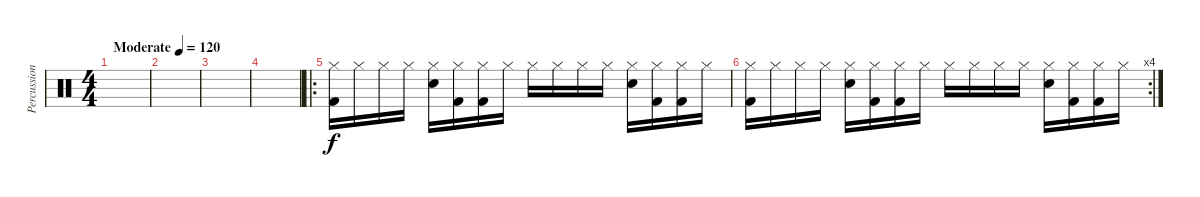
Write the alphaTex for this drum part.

\track ("Percussion" "Percussion") {instrument percussion}
\staff {score}
\articulation defaults
\ts (4 4)
\tempo (120 "Moderate")
\clef neutral
\ks c
|
|
|
|
\ro
("Hi-Hat (closed)" "Kick (hit) 2").16 "Hi-Hat (closed)".16 "Hi-Hat (closed)".16 "Hi-Hat (closed)".16 ("Hi-Hat (closed)" "Snare (hit) 2").16 ("Hi-Hat (closed)" "Kick (hit) 2").16 ("Hi-Hat (closed)" "Kick (hit) 2").16 "Hi-Hat (closed)".16 "Hi-Hat (closed)".16 "Hi-Hat (closed)".16 "Hi-Hat (closed)".16 "Hi-Hat (closed)".16 ("Hi-Hat (closed)" "Snare (hit) 2").16 ("Hi-Hat (closed)" "Kick (hit) 2").16 ("Hi-Hat (closed)" "Kick (hit) 2").16 "Hi-Hat (closed)".16 |
\rc 4
("Hi-Hat (closed)" "Kick (hit) 2").16 "Hi-Hat (closed)".16 "Hi-Hat (closed)".16 "Hi-Hat (closed)".16 ("Hi-Hat (closed)" "Snare (hit) 2").16 ("Hi-Hat (closed)" "Kick (hit) 2").16 ("Hi-Hat (closed)" "Kick (hit) 2").16 "Hi-Hat (closed)".16 "Hi-Hat (closed)".16 "Hi-Hat (closed)".16 "Hi-Hat (closed)".16 "Hi-Hat (closed)".16 ("Hi-Hat (closed)" "Snare (hit) 2").16 ("Hi-Hat (closed)" "Kick (hit) 2").16 ("Hi-Hat (closed)" "Kick (hit) 2").16 "Hi-Hat (closed)".16
